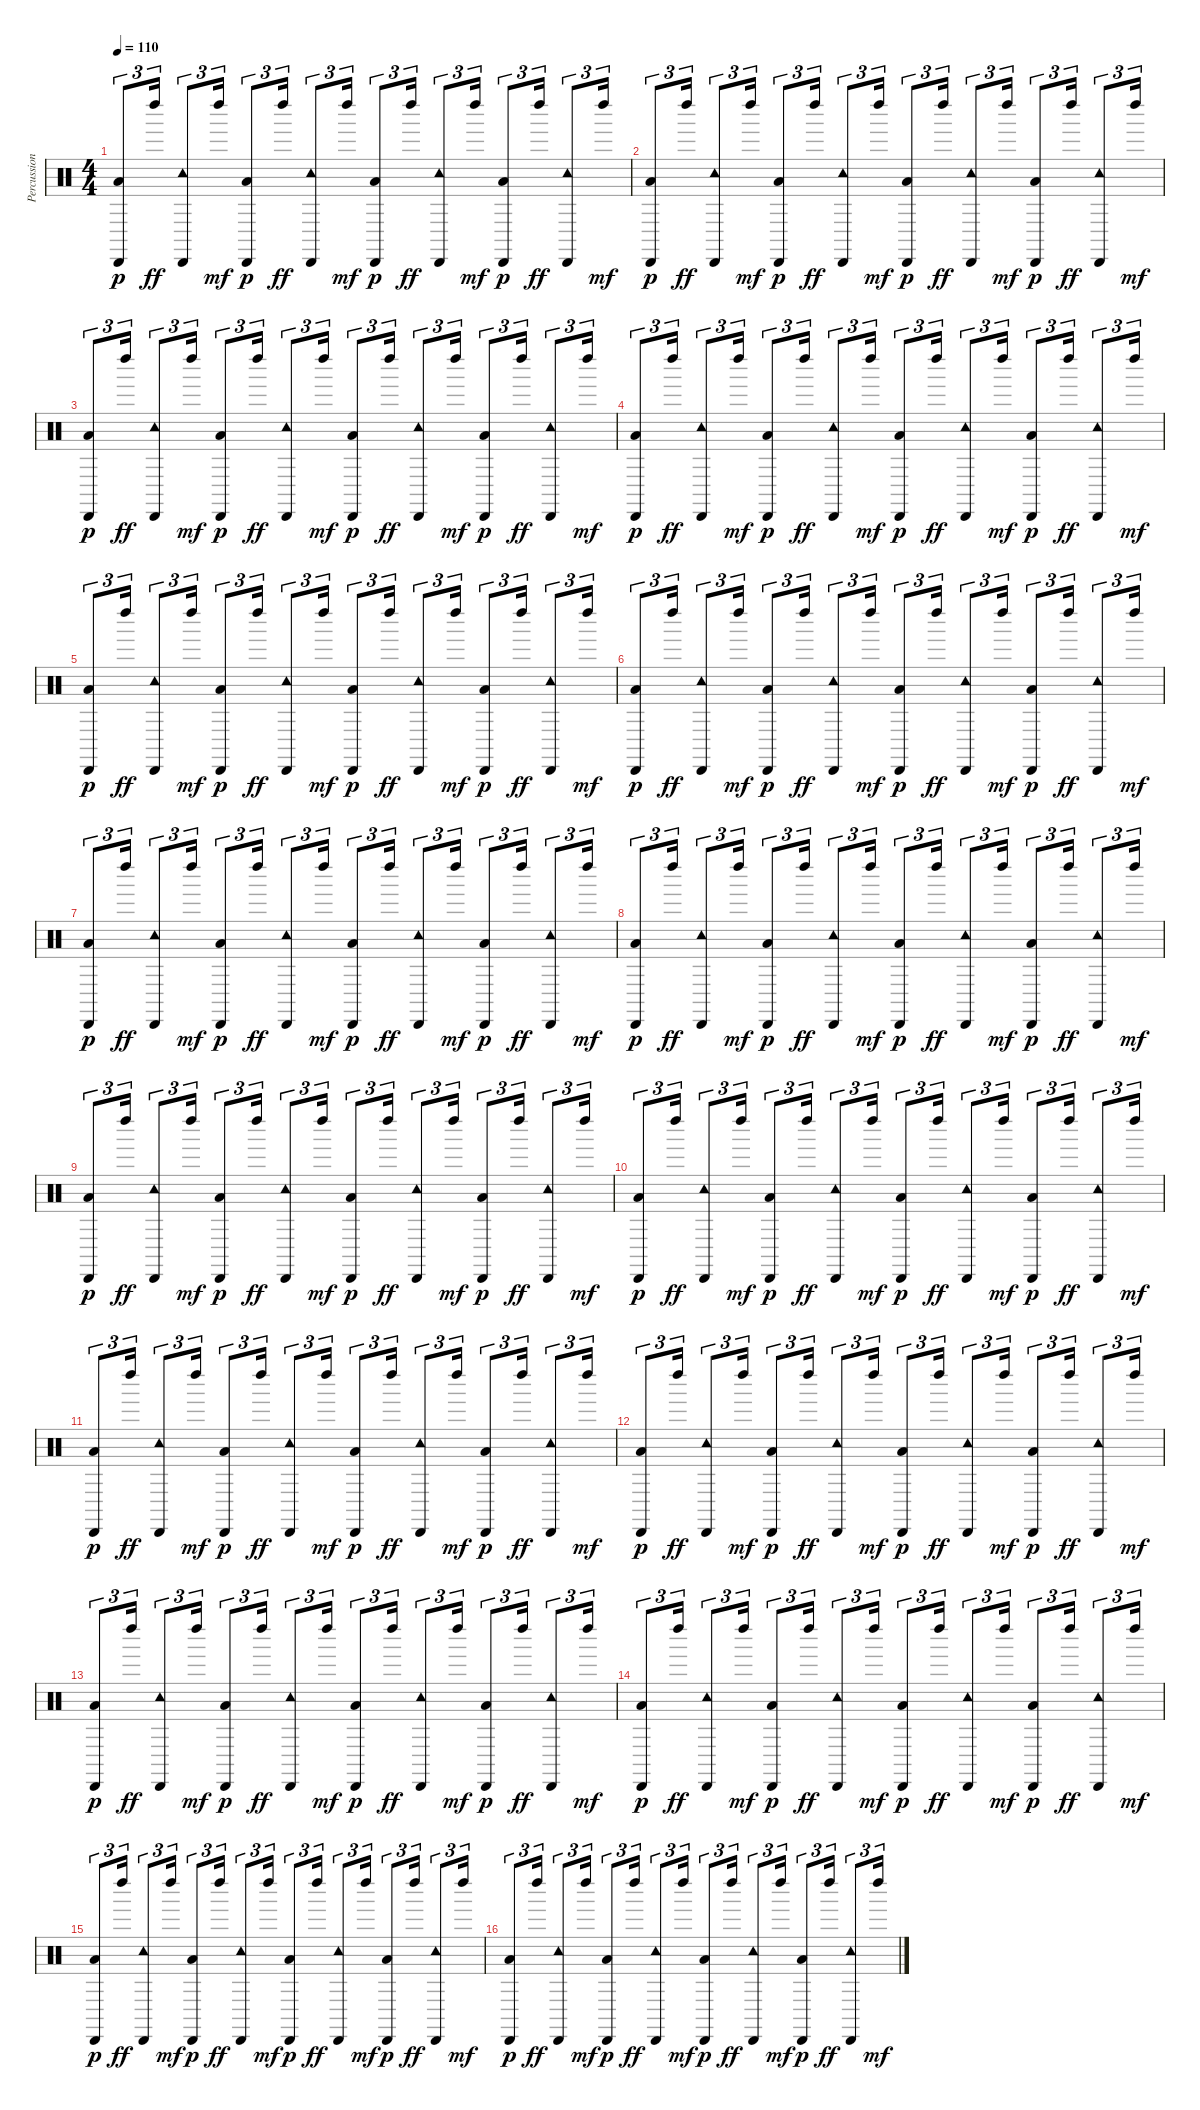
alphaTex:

\track ("Percussions" "Percussion") {instrument percussion}
\staff {score}
\articulation defaults
\ts (4 4)
\tempo 110
\clef neutral
\ks c
("Cabasa (hit)" "Low Floor Tom (hit)").8{tu (3 2) dy p} "Left Maraca (hit)".16{tu (3 2) dy ff} ("Tambourine (hit)" "Cabasa (hit)").8{tu (3 2)} "Left Maraca (hit)".16{tu (3 2) dy mf} ("Cabasa (hit)" "Low Floor Tom (hit)").8{tu (3 2) dy p} "Left Maraca (hit)".16{tu (3 2) dy ff} ("Tambourine (hit)" "Cabasa (hit)").8{tu (3 2)} "Left Maraca (hit)".16{tu (3 2) dy mf} ("Cabasa (hit)" "Low Floor Tom (hit)").8{tu (3 2) dy p} "Left Maraca (hit)".16{tu (3 2) dy ff} ("Tambourine (hit)" "Cabasa (hit)").8{tu (3 2)} "Left Maraca (hit)".16{tu (3 2) dy mf} ("Cabasa (hit)" "Low Floor Tom (hit)").8{tu (3 2) dy p} "Left Maraca (hit)".16{tu (3 2) dy ff} ("Tambourine (hit)" "Cabasa (hit)").8{tu (3 2)} "Left Maraca (hit)".16{tu (3 2) dy mf} |
("Cabasa (hit)" "Low Floor Tom (hit)").8{tu (3 2) dy p} "Left Maraca (hit)".16{tu (3 2) dy ff} ("Tambourine (hit)" "Cabasa (hit)").8{tu (3 2)} "Left Maraca (hit)".16{tu (3 2) dy mf} ("Cabasa (hit)" "Low Floor Tom (hit)").8{tu (3 2) dy p} "Left Maraca (hit)".16{tu (3 2) dy ff} ("Tambourine (hit)" "Cabasa (hit)").8{tu (3 2)} "Left Maraca (hit)".16{tu (3 2) dy mf} ("Cabasa (hit)" "Low Floor Tom (hit)").8{tu (3 2) dy p} "Left Maraca (hit)".16{tu (3 2) dy ff} ("Tambourine (hit)" "Cabasa (hit)").8{tu (3 2)} "Left Maraca (hit)".16{tu (3 2) dy mf} ("Cabasa (hit)" "Low Floor Tom (hit)").8{tu (3 2) dy p} "Left Maraca (hit)".16{tu (3 2) dy ff} ("Tambourine (hit)" "Cabasa (hit)").8{tu (3 2)} "Left Maraca (hit)".16{tu (3 2) dy mf} |
("Cabasa (hit)" "Low Floor Tom (hit)").8{tu (3 2) dy p} "Left Maraca (hit)".16{tu (3 2) dy ff} ("Tambourine (hit)" "Cabasa (hit)").8{tu (3 2)} "Left Maraca (hit)".16{tu (3 2) dy mf} ("Cabasa (hit)" "Low Floor Tom (hit)").8{tu (3 2) dy p} "Left Maraca (hit)".16{tu (3 2) dy ff} ("Tambourine (hit)" "Cabasa (hit)").8{tu (3 2)} "Left Maraca (hit)".16{tu (3 2) dy mf} ("Cabasa (hit)" "Low Floor Tom (hit)").8{tu (3 2) dy p} "Left Maraca (hit)".16{tu (3 2) dy ff} ("Tambourine (hit)" "Cabasa (hit)").8{tu (3 2)} "Left Maraca (hit)".16{tu (3 2) dy mf} ("Cabasa (hit)" "Low Floor Tom (hit)").8{tu (3 2) dy p} "Left Maraca (hit)".16{tu (3 2) dy ff} ("Tambourine (hit)" "Cabasa (hit)").8{tu (3 2)} "Left Maraca (hit)".16{tu (3 2) dy mf} |
("Cabasa (hit)" "Low Floor Tom (hit)").8{tu (3 2) dy p} "Left Maraca (hit)".16{tu (3 2) dy ff} ("Tambourine (hit)" "Cabasa (hit)").8{tu (3 2)} "Left Maraca (hit)".16{tu (3 2) dy mf} ("Cabasa (hit)" "Low Floor Tom (hit)").8{tu (3 2) dy p} "Left Maraca (hit)".16{tu (3 2) dy ff} ("Tambourine (hit)" "Cabasa (hit)").8{tu (3 2)} "Left Maraca (hit)".16{tu (3 2) dy mf} ("Cabasa (hit)" "Low Floor Tom (hit)").8{tu (3 2) dy p} "Left Maraca (hit)".16{tu (3 2) dy ff} ("Tambourine (hit)" "Cabasa (hit)").8{tu (3 2)} "Left Maraca (hit)".16{tu (3 2) dy mf} ("Cabasa (hit)" "Low Floor Tom (hit)").8{tu (3 2) dy p} "Left Maraca (hit)".16{tu (3 2) dy ff} ("Tambourine (hit)" "Cabasa (hit)").8{tu (3 2)} "Left Maraca (hit)".16{tu (3 2) dy mf} |
("Cabasa (hit)" "Low Floor Tom (hit)").8{tu (3 2) dy p} "Left Maraca (hit)".16{tu (3 2) dy ff} ("Tambourine (hit)" "Cabasa (hit)").8{tu (3 2)} "Left Maraca (hit)".16{tu (3 2) dy mf} ("Cabasa (hit)" "Low Floor Tom (hit)").8{tu (3 2) dy p} "Left Maraca (hit)".16{tu (3 2) dy ff} ("Tambourine (hit)" "Cabasa (hit)").8{tu (3 2)} "Left Maraca (hit)".16{tu (3 2) dy mf} ("Cabasa (hit)" "Low Floor Tom (hit)").8{tu (3 2) dy p} "Left Maraca (hit)".16{tu (3 2) dy ff} ("Tambourine (hit)" "Cabasa (hit)").8{tu (3 2)} "Left Maraca (hit)".16{tu (3 2) dy mf} ("Cabasa (hit)" "Low Floor Tom (hit)").8{tu (3 2) dy p} "Left Maraca (hit)".16{tu (3 2) dy ff} ("Tambourine (hit)" "Cabasa (hit)").8{tu (3 2)} "Left Maraca (hit)".16{tu (3 2) dy mf} |
("Cabasa (hit)" "Low Floor Tom (hit)").8{tu (3 2) dy p} "Left Maraca (hit)".16{tu (3 2) dy ff} ("Tambourine (hit)" "Cabasa (hit)").8{tu (3 2)} "Left Maraca (hit)".16{tu (3 2) dy mf} ("Cabasa (hit)" "Low Floor Tom (hit)").8{tu (3 2) dy p} "Left Maraca (hit)".16{tu (3 2) dy ff} ("Tambourine (hit)" "Cabasa (hit)").8{tu (3 2)} "Left Maraca (hit)".16{tu (3 2) dy mf} ("Cabasa (hit)" "Low Floor Tom (hit)").8{tu (3 2) dy p} "Left Maraca (hit)".16{tu (3 2) dy ff} ("Tambourine (hit)" "Cabasa (hit)").8{tu (3 2)} "Left Maraca (hit)".16{tu (3 2) dy mf} ("Cabasa (hit)" "Low Floor Tom (hit)").8{tu (3 2) dy p} "Left Maraca (hit)".16{tu (3 2) dy ff} ("Tambourine (hit)" "Cabasa (hit)").8{tu (3 2)} "Left Maraca (hit)".16{tu (3 2) dy mf} |
("Cabasa (hit)" "Low Floor Tom (hit)").8{tu (3 2) dy p} "Left Maraca (hit)".16{tu (3 2) dy ff} ("Tambourine (hit)" "Cabasa (hit)").8{tu (3 2)} "Left Maraca (hit)".16{tu (3 2) dy mf} ("Cabasa (hit)" "Low Floor Tom (hit)").8{tu (3 2) dy p} "Left Maraca (hit)".16{tu (3 2) dy ff} ("Tambourine (hit)" "Cabasa (hit)").8{tu (3 2)} "Left Maraca (hit)".16{tu (3 2) dy mf} ("Cabasa (hit)" "Low Floor Tom (hit)").8{tu (3 2) dy p} "Left Maraca (hit)".16{tu (3 2) dy ff} ("Tambourine (hit)" "Cabasa (hit)").8{tu (3 2)} "Left Maraca (hit)".16{tu (3 2) dy mf} ("Cabasa (hit)" "Low Floor Tom (hit)").8{tu (3 2) dy p} "Left Maraca (hit)".16{tu (3 2) dy ff} ("Tambourine (hit)" "Cabasa (hit)").8{tu (3 2)} "Left Maraca (hit)".16{tu (3 2) dy mf} |
("Cabasa (hit)" "Low Floor Tom (hit)").8{tu (3 2) dy p} "Left Maraca (hit)".16{tu (3 2) dy ff} ("Tambourine (hit)" "Cabasa (hit)").8{tu (3 2)} "Left Maraca (hit)".16{tu (3 2) dy mf} ("Cabasa (hit)" "Low Floor Tom (hit)").8{tu (3 2) dy p} "Left Maraca (hit)".16{tu (3 2) dy ff} ("Tambourine (hit)" "Cabasa (hit)").8{tu (3 2)} "Left Maraca (hit)".16{tu (3 2) dy mf} ("Cabasa (hit)" "Low Floor Tom (hit)").8{tu (3 2) dy p} "Left Maraca (hit)".16{tu (3 2) dy ff} ("Tambourine (hit)" "Cabasa (hit)").8{tu (3 2)} "Left Maraca (hit)".16{tu (3 2) dy mf} ("Cabasa (hit)" "Low Floor Tom (hit)").8{tu (3 2) dy p} "Left Maraca (hit)".16{tu (3 2) dy ff} ("Tambourine (hit)" "Cabasa (hit)").8{tu (3 2)} "Left Maraca (hit)".16{tu (3 2) dy mf} |
("Cabasa (hit)" "Low Floor Tom (hit)").8{tu (3 2) dy p} "Left Maraca (hit)".16{tu (3 2) dy ff} ("Tambourine (hit)" "Cabasa (hit)").8{tu (3 2)} "Left Maraca (hit)".16{tu (3 2) dy mf} ("Cabasa (hit)" "Low Floor Tom (hit)").8{tu (3 2) dy p} "Left Maraca (hit)".16{tu (3 2) dy ff} ("Tambourine (hit)" "Cabasa (hit)").8{tu (3 2)} "Left Maraca (hit)".16{tu (3 2) dy mf} ("Cabasa (hit)" "Low Floor Tom (hit)").8{tu (3 2) dy p} "Left Maraca (hit)".16{tu (3 2) dy ff} ("Tambourine (hit)" "Cabasa (hit)").8{tu (3 2)} "Left Maraca (hit)".16{tu (3 2) dy mf} ("Cabasa (hit)" "Low Floor Tom (hit)").8{tu (3 2) dy p} "Left Maraca (hit)".16{tu (3 2) dy ff} ("Tambourine (hit)" "Cabasa (hit)").8{tu (3 2)} "Left Maraca (hit)".16{tu (3 2) dy mf} |
("Cabasa (hit)" "Low Floor Tom (hit)").8{tu (3 2) dy p} "Left Maraca (hit)".16{tu (3 2) dy ff} ("Tambourine (hit)" "Cabasa (hit)").8{tu (3 2)} "Left Maraca (hit)".16{tu (3 2) dy mf} ("Cabasa (hit)" "Low Floor Tom (hit)").8{tu (3 2) dy p} "Left Maraca (hit)".16{tu (3 2) dy ff} ("Tambourine (hit)" "Cabasa (hit)").8{tu (3 2)} "Left Maraca (hit)".16{tu (3 2) dy mf} ("Cabasa (hit)" "Low Floor Tom (hit)").8{tu (3 2) dy p} "Left Maraca (hit)".16{tu (3 2) dy ff} ("Tambourine (hit)" "Cabasa (hit)").8{tu (3 2)} "Left Maraca (hit)".16{tu (3 2) dy mf} ("Cabasa (hit)" "Low Floor Tom (hit)").8{tu (3 2) dy p} "Left Maraca (hit)".16{tu (3 2) dy ff} ("Tambourine (hit)" "Cabasa (hit)").8{tu (3 2)} "Left Maraca (hit)".16{tu (3 2) dy mf} |
("Cabasa (hit)" "Low Floor Tom (hit)").8{tu (3 2) dy p} "Left Maraca (hit)".16{tu (3 2) dy ff} ("Tambourine (hit)" "Cabasa (hit)").8{tu (3 2)} "Left Maraca (hit)".16{tu (3 2) dy mf} ("Cabasa (hit)" "Low Floor Tom (hit)").8{tu (3 2) dy p} "Left Maraca (hit)".16{tu (3 2) dy ff} ("Tambourine (hit)" "Cabasa (hit)").8{tu (3 2)} "Left Maraca (hit)".16{tu (3 2) dy mf} ("Cabasa (hit)" "Low Floor Tom (hit)").8{tu (3 2) dy p} "Left Maraca (hit)".16{tu (3 2) dy ff} ("Tambourine (hit)" "Cabasa (hit)").8{tu (3 2)} "Left Maraca (hit)".16{tu (3 2) dy mf} ("Cabasa (hit)" "Low Floor Tom (hit)").8{tu (3 2) dy p} "Left Maraca (hit)".16{tu (3 2) dy ff} ("Tambourine (hit)" "Cabasa (hit)").8{tu (3 2)} "Left Maraca (hit)".16{tu (3 2) dy mf} |
("Cabasa (hit)" "Low Floor Tom (hit)").8{tu (3 2) dy p} "Left Maraca (hit)".16{tu (3 2) dy ff} ("Tambourine (hit)" "Cabasa (hit)").8{tu (3 2)} "Left Maraca (hit)".16{tu (3 2) dy mf} ("Cabasa (hit)" "Low Floor Tom (hit)").8{tu (3 2) dy p} "Left Maraca (hit)".16{tu (3 2) dy ff} ("Tambourine (hit)" "Cabasa (hit)").8{tu (3 2)} "Left Maraca (hit)".16{tu (3 2) dy mf} ("Cabasa (hit)" "Low Floor Tom (hit)").8{tu (3 2) dy p} "Left Maraca (hit)".16{tu (3 2) dy ff} ("Tambourine (hit)" "Cabasa (hit)").8{tu (3 2)} "Left Maraca (hit)".16{tu (3 2) dy mf} ("Cabasa (hit)" "Low Floor Tom (hit)").8{tu (3 2) dy p} "Left Maraca (hit)".16{tu (3 2) dy ff} ("Tambourine (hit)" "Cabasa (hit)").8{tu (3 2)} "Left Maraca (hit)".16{tu (3 2) dy mf} |
("Cabasa (hit)" "Low Floor Tom (hit)").8{tu (3 2) dy p} "Left Maraca (hit)".16{tu (3 2) dy ff} ("Tambourine (hit)" "Cabasa (hit)").8{tu (3 2)} "Left Maraca (hit)".16{tu (3 2) dy mf} ("Cabasa (hit)" "Low Floor Tom (hit)").8{tu (3 2) dy p} "Left Maraca (hit)".16{tu (3 2) dy ff} ("Tambourine (hit)" "Cabasa (hit)").8{tu (3 2)} "Left Maraca (hit)".16{tu (3 2) dy mf} ("Cabasa (hit)" "Low Floor Tom (hit)").8{tu (3 2) dy p} "Left Maraca (hit)".16{tu (3 2) dy ff} ("Tambourine (hit)" "Cabasa (hit)").8{tu (3 2)} "Left Maraca (hit)".16{tu (3 2) dy mf} ("Cabasa (hit)" "Low Floor Tom (hit)").8{tu (3 2) dy p} "Left Maraca (hit)".16{tu (3 2) dy ff} ("Tambourine (hit)" "Cabasa (hit)").8{tu (3 2)} "Left Maraca (hit)".16{tu (3 2) dy mf} |
("Cabasa (hit)" "Low Floor Tom (hit)").8{tu (3 2) dy p} "Left Maraca (hit)".16{tu (3 2) dy ff} ("Tambourine (hit)" "Cabasa (hit)").8{tu (3 2)} "Left Maraca (hit)".16{tu (3 2) dy mf} ("Cabasa (hit)" "Low Floor Tom (hit)").8{tu (3 2) dy p} "Left Maraca (hit)".16{tu (3 2) dy ff} ("Tambourine (hit)" "Cabasa (hit)").8{tu (3 2)} "Left Maraca (hit)".16{tu (3 2) dy mf} ("Cabasa (hit)" "Low Floor Tom (hit)").8{tu (3 2) dy p} "Left Maraca (hit)".16{tu (3 2) dy ff} ("Tambourine (hit)" "Cabasa (hit)").8{tu (3 2)} "Left Maraca (hit)".16{tu (3 2) dy mf} ("Cabasa (hit)" "Low Floor Tom (hit)").8{tu (3 2) dy p} "Left Maraca (hit)".16{tu (3 2) dy ff} ("Tambourine (hit)" "Cabasa (hit)").8{tu (3 2)} "Left Maraca (hit)".16{tu (3 2) dy mf} |
("Cabasa (hit)" "Low Floor Tom (hit)").8{tu (3 2) dy p} "Left Maraca (hit)".16{tu (3 2) dy ff} ("Tambourine (hit)" "Cabasa (hit)").8{tu (3 2)} "Left Maraca (hit)".16{tu (3 2) dy mf} ("Cabasa (hit)" "Low Floor Tom (hit)").8{tu (3 2) dy p} "Left Maraca (hit)".16{tu (3 2) dy ff} ("Tambourine (hit)" "Cabasa (hit)").8{tu (3 2)} "Left Maraca (hit)".16{tu (3 2) dy mf} ("Cabasa (hit)" "Low Floor Tom (hit)").8{tu (3 2) dy p} "Left Maraca (hit)".16{tu (3 2) dy ff} ("Tambourine (hit)" "Cabasa (hit)").8{tu (3 2)} "Left Maraca (hit)".16{tu (3 2) dy mf} ("Cabasa (hit)" "Low Floor Tom (hit)").8{tu (3 2) dy p} "Left Maraca (hit)".16{tu (3 2) dy ff} ("Tambourine (hit)" "Cabasa (hit)").8{tu (3 2)} "Left Maraca (hit)".16{tu (3 2) dy mf} |
("Cabasa (hit)" "Low Floor Tom (hit)").8{tu (3 2) dy p} "Left Maraca (hit)".16{tu (3 2) dy ff} ("Tambourine (hit)" "Cabasa (hit)").8{tu (3 2)} "Left Maraca (hit)".16{tu (3 2) dy mf} ("Cabasa (hit)" "Low Floor Tom (hit)").8{tu (3 2) dy p} "Left Maraca (hit)".16{tu (3 2) dy ff} ("Tambourine (hit)" "Cabasa (hit)").8{tu (3 2)} "Left Maraca (hit)".16{tu (3 2) dy mf} ("Cabasa (hit)" "Low Floor Tom (hit)").8{tu (3 2) dy p} "Left Maraca (hit)".16{tu (3 2) dy ff} ("Tambourine (hit)" "Cabasa (hit)").8{tu (3 2)} "Left Maraca (hit)".16{tu (3 2) dy mf} ("Cabasa (hit)" "Low Floor Tom (hit)").8{tu (3 2) dy p} "Left Maraca (hit)".16{tu (3 2) dy ff} ("Tambourine (hit)" "Cabasa (hit)").8{tu (3 2)} "Left Maraca (hit)".16{tu (3 2) dy mf}
